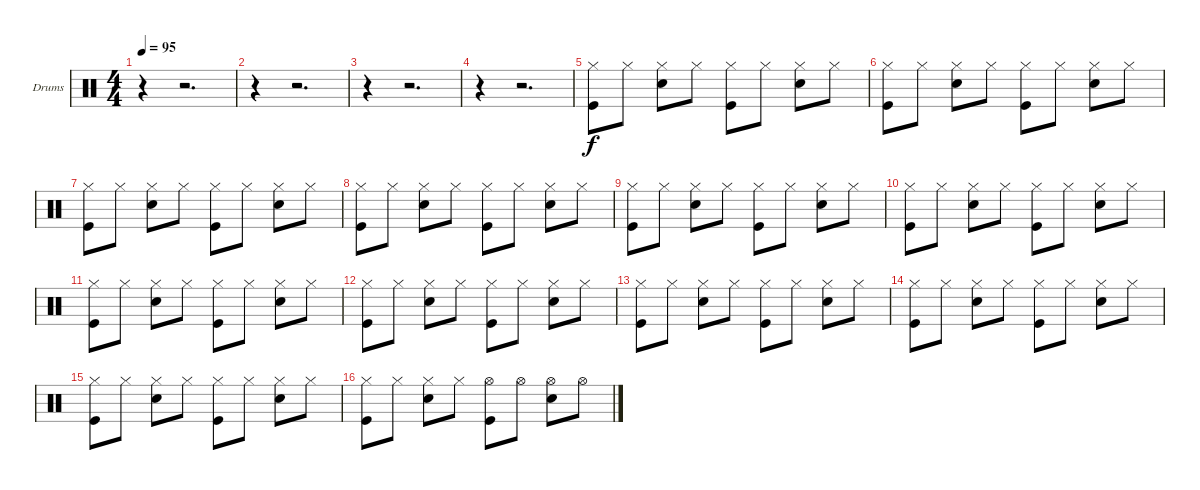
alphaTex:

\bracketExtendMode groupsimilarinstruments
\firstSystemTrackNameOrientation horizontal
\otherSystemsTrackNameOrientation horizontal
\track ("Drumkit" "Drums") {instrument percussion}
\staff {score}
\articulation defaults
\ts (4 4)
\tempo 95
\clef neutral
\ks c
r.4{dy f} r.2{d} |
r.4 r.2{d} |
r.4 r.2{d} |
r.4 r.2{d} |
("Hi-Hat (closed)" "Kick (hit)").8 "Hi-Hat (closed)".8 ("Hi-Hat (closed)" "Snare (hit) 2").8 "Hi-Hat (closed)".8 ("Hi-Hat (closed)" "Kick (hit)").8 "Hi-Hat (closed)".8 ("Hi-Hat (closed)" "Snare (hit) 2").8 "Hi-Hat (closed)".8 |
("Hi-Hat (closed)" "Kick (hit)").8 "Hi-Hat (closed)".8 ("Hi-Hat (closed)" "Snare (hit) 2").8 "Hi-Hat (closed)".8 ("Hi-Hat (closed)" "Kick (hit)").8 "Hi-Hat (closed)".8 ("Hi-Hat (closed)" "Snare (hit) 2").8 "Hi-Hat (closed)".8 |
("Hi-Hat (closed)" "Kick (hit)").8 "Hi-Hat (closed)".8 ("Hi-Hat (closed)" "Snare (hit) 2").8 "Hi-Hat (closed)".8 ("Hi-Hat (closed)" "Kick (hit)").8 "Hi-Hat (closed)".8 ("Hi-Hat (closed)" "Snare (hit) 2").8 "Hi-Hat (closed)".8 |
("Hi-Hat (closed)" "Kick (hit)").8 "Hi-Hat (closed)".8 ("Hi-Hat (closed)" "Snare (hit) 2").8 "Hi-Hat (closed)".8 ("Hi-Hat (closed)" "Kick (hit)").8 "Hi-Hat (closed)".8 ("Hi-Hat (closed)" "Snare (hit) 2").8 "Hi-Hat (closed)".8 |
("Hi-Hat (closed)" "Kick (hit)").8 "Hi-Hat (closed)".8 ("Hi-Hat (closed)" "Snare (hit) 2").8 "Hi-Hat (closed)".8 ("Hi-Hat (closed)" "Kick (hit)").8 "Hi-Hat (closed)".8 ("Hi-Hat (closed)" "Snare (hit) 2").8 "Hi-Hat (closed)".8 |
("Hi-Hat (closed)" "Kick (hit)").8 "Hi-Hat (closed)".8 ("Hi-Hat (closed)" "Snare (hit) 2").8 "Hi-Hat (closed)".8 ("Hi-Hat (closed)" "Kick (hit)").8 "Hi-Hat (closed)".8 ("Hi-Hat (closed)" "Snare (hit) 2").8 "Hi-Hat (closed)".8 |
("Hi-Hat (closed)" "Kick (hit)").8 "Hi-Hat (closed)".8 ("Hi-Hat (closed)" "Snare (hit) 2").8 "Hi-Hat (closed)".8 ("Hi-Hat (closed)" "Kick (hit)").8 "Hi-Hat (closed)".8 ("Hi-Hat (closed)" "Snare (hit) 2").8 "Hi-Hat (closed)".8 |
("Hi-Hat (closed)" "Kick (hit)").8 "Hi-Hat (closed)".8 ("Hi-Hat (closed)" "Snare (hit) 2").8 "Hi-Hat (closed)".8 ("Hi-Hat (closed)" "Kick (hit)").8 "Hi-Hat (closed)".8 ("Hi-Hat (closed)" "Snare (hit) 2").8 "Hi-Hat (closed)".8 |
("Hi-Hat (closed)" "Kick (hit)").8 "Hi-Hat (closed)".8 ("Hi-Hat (closed)" "Snare (hit) 2").8 "Hi-Hat (closed)".8 ("Hi-Hat (closed)" "Kick (hit)").8 "Hi-Hat (closed)".8 ("Hi-Hat (closed)" "Snare (hit) 2").8 "Hi-Hat (closed)".8 |
("Hi-Hat (closed)" "Kick (hit)").8 "Hi-Hat (closed)".8 ("Hi-Hat (closed)" "Snare (hit) 2").8 "Hi-Hat (closed)".8 ("Hi-Hat (closed)" "Kick (hit)").8 "Hi-Hat (closed)".8 ("Hi-Hat (closed)" "Snare (hit) 2").8 "Hi-Hat (closed)".8 |
("Hi-Hat (closed)" "Kick (hit)").8 "Hi-Hat (closed)".8 ("Hi-Hat (closed)" "Snare (hit) 2").8 "Hi-Hat (closed)".8 ("Hi-Hat (closed)" "Kick (hit)").8 "Hi-Hat (closed)".8 ("Hi-Hat (closed)" "Snare (hit) 2").8 "Hi-Hat (closed)".8 |
("Hi-Hat (closed)" "Kick (hit)").8 "Hi-Hat (closed)".8 ("Hi-Hat (closed)" "Snare (hit) 2").8 "Hi-Hat (closed)".8 ("Hi-Hat (open)" "Kick (hit)").8 "Hi-Hat (open)".8 ("Hi-Hat (open)" "Snare (hit) 2").8 "Hi-Hat (open)".8
